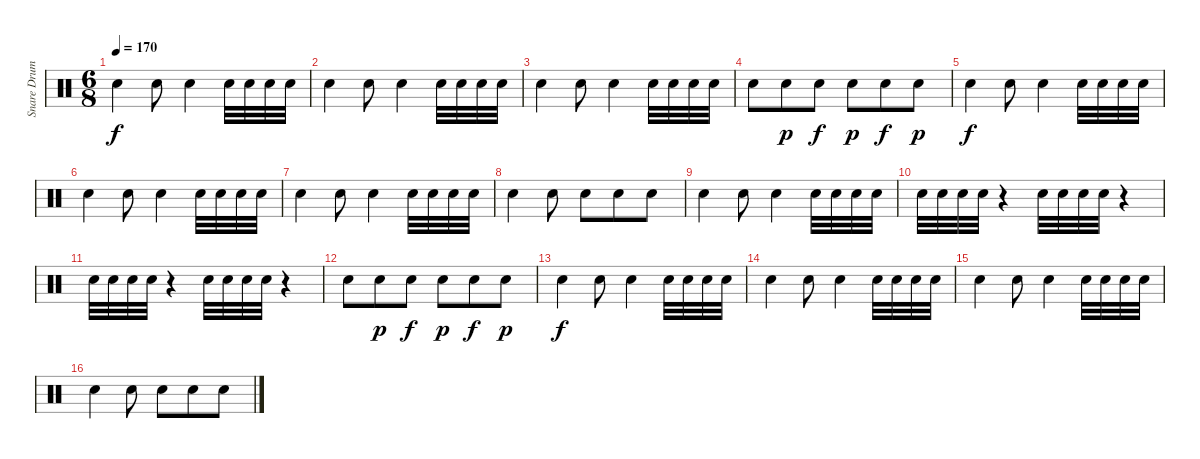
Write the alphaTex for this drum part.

\track ("Snare Drum" "Snare Drum") {instrument percussion}
\staff {score}
\articulation defaults
\ts (6 8)
\tempo 170
\clef neutral
\ks c "Snare (hit) 2".4{dy f} "Snare (hit) 2".8 "Snare (hit) 2".4 "Snare (hit) 2".32 "Snare (hit) 2".32 "Snare (hit) 2".32 "Snare (hit) 2".32
|
"Snare (hit) 2".4 "Snare (hit) 2".8 "Snare (hit) 2".4 "Snare (hit) 2".32 "Snare (hit) 2".32 "Snare (hit) 2".32 "Snare (hit) 2".32 |
"Snare (hit) 2".4 "Snare (hit) 2".8 "Snare (hit) 2".4 "Snare (hit) 2".32 "Snare (hit) 2".32 "Snare (hit) 2".32 "Snare (hit) 2".32 |
"Snare (hit) 2".8 "Snare (hit) 2".8{dy p} "Snare (hit) 2".8{dy f} "Snare (hit) 2".8{dy p} "Snare (hit) 2".8{dy f} "Snare (hit) 2".8{dy p} |
"Snare (hit) 2".4{dy f} "Snare (hit) 2".8 "Snare (hit) 2".4 "Snare (hit) 2".32 "Snare (hit) 2".32 "Snare (hit) 2".32 "Snare (hit) 2".32 |
"Snare (hit) 2".4 "Snare (hit) 2".8 "Snare (hit) 2".4 "Snare (hit) 2".32 "Snare (hit) 2".32 "Snare (hit) 2".32 "Snare (hit) 2".32 |
"Snare (hit) 2".4 "Snare (hit) 2".8 "Snare (hit) 2".4 "Snare (hit) 2".32 "Snare (hit) 2".32 "Snare (hit) 2".32 "Snare (hit) 2".32 |
"Snare (hit) 2".4 "Snare (hit) 2".8 "Snare (hit) 2".8 "Snare (hit) 2".8 "Snare (hit) 2".8 |
"Snare (hit) 2".4 "Snare (hit) 2".8 "Snare (hit) 2".4 "Snare (hit) 2".32 "Snare (hit) 2".32 "Snare (hit) 2".32 "Snare (hit) 2".32 |
"Snare (hit) 2".32 "Snare (hit) 2".32 "Snare (hit) 2".32 "Snare (hit) 2".32 r.4 "Snare (hit) 2".32 "Snare (hit) 2".32 "Snare (hit) 2".32 "Snare (hit) 2".32 r.4 |
"Snare (hit) 2".32 "Snare (hit) 2".32 "Snare (hit) 2".32 "Snare (hit) 2".32 r.4 "Snare (hit) 2".32 "Snare (hit) 2".32 "Snare (hit) 2".32 "Snare (hit) 2".32 r.4 |
"Snare (hit) 2".8 "Snare (hit) 2".8{dy p} "Snare (hit) 2".8{dy f} "Snare (hit) 2".8{dy p} "Snare (hit) 2".8{dy f} "Snare (hit) 2".8{dy p} |
"Snare (hit) 2".4{dy f} "Snare (hit) 2".8 "Snare (hit) 2".4 "Snare (hit) 2".32 "Snare (hit) 2".32 "Snare (hit) 2".32 "Snare (hit) 2".32 |
"Snare (hit) 2".4 "Snare (hit) 2".8 "Snare (hit) 2".4 "Snare (hit) 2".32 "Snare (hit) 2".32 "Snare (hit) 2".32 "Snare (hit) 2".32 |
"Snare (hit) 2".4 "Snare (hit) 2".8 "Snare (hit) 2".4 "Snare (hit) 2".32 "Snare (hit) 2".32 "Snare (hit) 2".32 "Snare (hit) 2".32 |
"Snare (hit) 2".4 "Snare (hit) 2".8 "Snare (hit) 2".8 "Snare (hit) 2".8 "Snare (hit) 2".8
